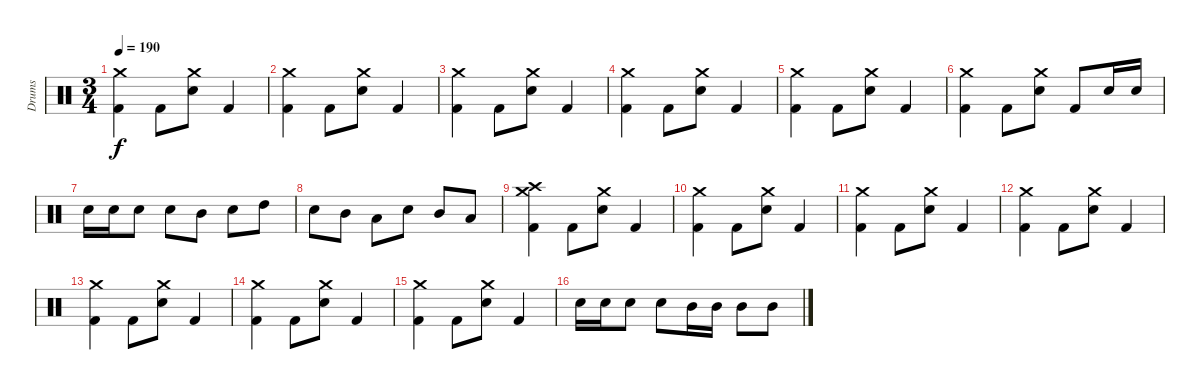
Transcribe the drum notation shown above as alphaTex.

\track ("Drums" "Drums") {instrument percussion}
\staff {score}
\articulation defaults
\ts (3 4)
\tempo 190
\clef neutral
\ks c
("Crash medium (hit)" "Kick (hit) 2").4{dy f} "Kick (hit) 2".8 ("Crash medium (hit)" "Electric Snare (hit)").8 "Kick (hit) 2".4 |
("Crash medium (hit)" "Kick (hit) 2").4 "Kick (hit) 2".8 ("Crash medium (hit)" "Electric Snare (hit)").8 "Kick (hit) 2".4 |
("Crash medium (hit)" "Kick (hit) 2").4 "Kick (hit) 2".8 ("Crash medium (hit)" "Electric Snare (hit)").8 "Kick (hit) 2".4 |
("Crash medium (hit)" "Kick (hit) 2").4 "Kick (hit) 2".8 ("Crash medium (hit)" "Electric Snare (hit)").8 "Kick (hit) 2".4 |
("Crash medium (hit)" "Kick (hit) 2").4 "Kick (hit) 2".8 ("Crash medium (hit)" "Electric Snare (hit)").8 "Kick (hit) 2".4 |
("Crash medium (hit)" "Kick (hit) 2").4 "Kick (hit) 2".8 ("Crash medium (hit)" "Electric Snare (hit)").8 "Kick (hit) 2".8 "Electric Snare (hit)".16 "Electric Snare (hit)".16 |
"Electric Snare (hit)".16 "Electric Snare (hit)".16 "Electric Snare (hit)".8 "Electric Snare (hit)".8 "Mid Tom (hit)".8 "Electric Snare (hit)".8 "High Tom (hit)".8 |
"Electric Snare (hit)".8 "Mid Tom (hit)".8 "Low Tom (hit)".8 "Electric Snare (hit)".8 "Mid Tom (hit)".8 "Low Tom (hit)".8 |
("Crash medium (hit)" "Crash high (hit)" "Kick (hit) 2").4 "Kick (hit) 2".8 ("Crash medium (hit)" "Electric Snare (hit)").8 "Kick (hit) 2".4 |
("Crash medium (hit)" "Kick (hit) 2").4 "Kick (hit) 2".8 ("Crash medium (hit)" "Electric Snare (hit)").8 "Kick (hit) 2".4 |
("Crash medium (hit)" "Kick (hit) 2").4 "Kick (hit) 2".8 ("Crash medium (hit)" "Electric Snare (hit)").8 "Kick (hit) 2".4 |
("Crash medium (hit)" "Kick (hit) 2").4 "Kick (hit) 2".8 ("Crash medium (hit)" "Electric Snare (hit)").8 "Kick (hit) 2".4 |
("Crash medium (hit)" "Kick (hit) 2").4 "Kick (hit) 2".8 ("Crash medium (hit)" "Electric Snare (hit)").8 "Kick (hit) 2".4 |
("Crash medium (hit)" "Kick (hit) 2").4 "Kick (hit) 2".8 ("Crash medium (hit)" "Electric Snare (hit)").8 "Kick (hit) 2".4 |
("Crash medium (hit)" "Kick (hit) 2").4 "Kick (hit) 2".8 ("Crash medium (hit)" "Electric Snare (hit)").8 "Kick (hit) 2".4 |
"Electric Snare (hit)".16 "Electric Snare (hit)".16 "Electric Snare (hit)".8 "Electric Snare (hit)".8 "Mid Tom (hit)".16 "Mid Tom (hit)".16 "Mid Tom (hit)".8 "Mid Tom (hit)".8
